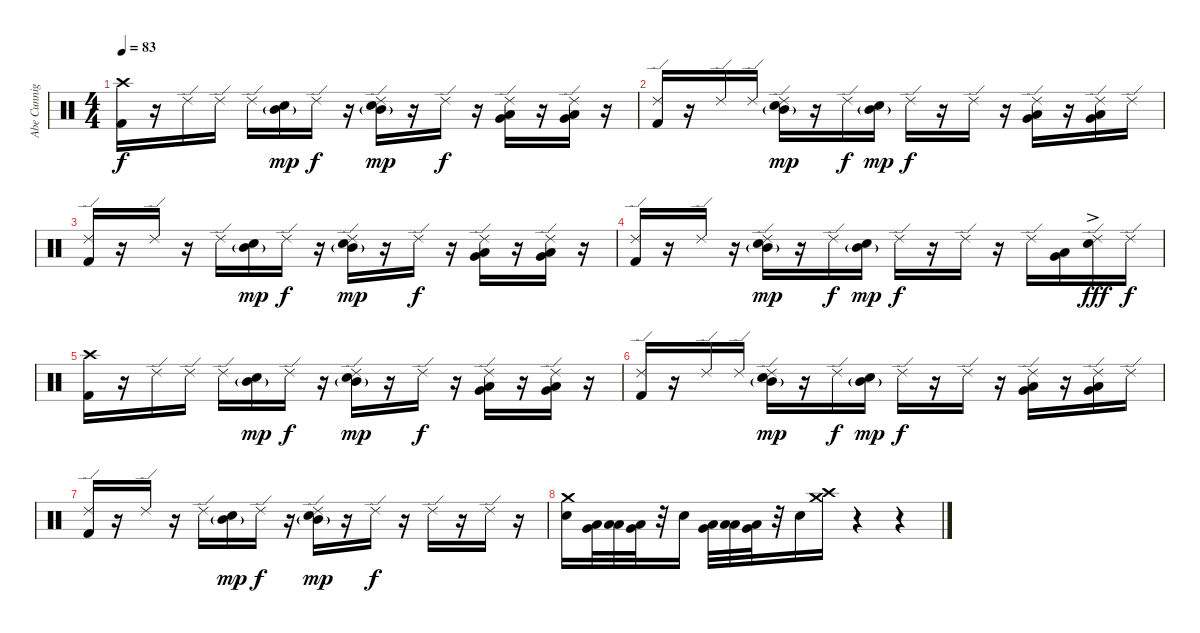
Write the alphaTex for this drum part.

\track ("Abe Cunnigham" "Abe Cunnig") {instrument percussion}
\staff {score}
\articulation defaults
\ts (4 4)
\tempo 83
\clef neutral
\ks c
("Crash high (hit)" "Kick (hit) 2").16{dy f} r.16 "Ride (edge) 2".16 "Ride (edge) 2".16 "Ride (edge) 2".16 ("Mid Tom (hit)"{g} "Electric Snare (hit)").16{dy mp} "Ride (edge) 2".16{dy f} r.16 ("Ride (edge) 2" "Mid Tom (hit)"{g} "Electric Snare (hit)").16{dy mp} r.16 "Ride (edge) 2".16{dy f} r.16 ("Ride (edge) 2" "Very Low Tom (hit)" "Low Tom (hit)").16 r.16 ("Ride (edge) 2" "Very Low Tom (hit)" "Low Tom (hit)").16 r.16 |
("Ride (edge) 2" "Kick (hit) 2").16 r.16 "Ride (edge) 2".16 "Ride (edge) 2".16 ("Ride (edge) 2" "Mid Tom (hit)"{g} "Electric Snare (hit)").16{dy mp} r.16 "Ride (edge) 2".16{dy f} ("Mid Tom (hit)"{g} "Electric Snare (hit)").16{dy mp} "Ride (edge) 2".16{dy f} r.16 "Ride (edge) 2".16 r.16 ("Ride (edge) 2" "Very Low Tom (hit)" "Low Tom (hit)").16 r.16 ("Ride (edge) 2" "Very Low Tom (hit)" "Low Tom (hit)").16 "Ride (edge) 2".16 |
("Ride (edge) 2" "Kick (hit) 2").16 r.16 "Ride (edge) 2".16 r.16 "Ride (edge) 2".16 ("Mid Tom (hit)"{g} "Electric Snare (hit)").16{dy mp} "Ride (edge) 2".16{dy f} r.16 ("Ride (edge) 2" "Mid Tom (hit)"{g} "Electric Snare (hit)").16{dy mp} r.16 "Ride (edge) 2".16{dy f} r.16 ("Ride (edge) 2" "Very Low Tom (hit)" "Low Tom (hit)").16 r.16 ("Ride (edge) 2" "Very Low Tom (hit)" "Low Tom (hit)").16 r.16 |
("Ride (edge) 2" "Kick (hit) 2").16 r.16 "Ride (edge) 2".16 r.16 ("Ride (edge) 2" "Mid Tom (hit)"{g} "Electric Snare (hit)").16{dy mp} r.16 "Ride (edge) 2".16{dy f} ("Mid Tom (hit)"{g} "Electric Snare (hit)").16{dy mp} "Ride (edge) 2".16{dy f} r.16 "Ride (edge) 2".16 r.16 "Ride (edge) 2".16 ("Very Low Tom (hit)" "Low Tom (hit)").16 ("Ride (edge) 2" "Electric Snare (hit)"{ac}).16{dy fff} "Ride (edge) 2".16{dy f} |
("Crash high (hit)" "Kick (hit) 2").16 r.16 "Ride (edge) 2".16 "Ride (edge) 2".16 "Ride (edge) 2".16 ("Mid Tom (hit)"{g} "Electric Snare (hit)").16{dy mp} "Ride (edge) 2".16{dy f} r.16 ("Ride (edge) 2" "Mid Tom (hit)"{g} "Electric Snare (hit)").16{dy mp} r.16 "Ride (edge) 2".16{dy f} r.16 ("Ride (edge) 2" "Very Low Tom (hit)" "Low Tom (hit)").16 r.16 ("Ride (edge) 2" "Very Low Tom (hit)" "Low Tom (hit)").16 r.16 |
("Ride (edge) 2" "Kick (hit) 2").16 r.16 "Ride (edge) 2".16 "Ride (edge) 2".16 ("Ride (edge) 2" "Mid Tom (hit)"{g} "Electric Snare (hit)").16{dy mp} r.16 "Ride (edge) 2".16{dy f} ("Mid Tom (hit)"{g} "Electric Snare (hit)").16{dy mp} "Ride (edge) 2".16{dy f} r.16 "Ride (edge) 2".16 r.16 ("Ride (edge) 2" "Very Low Tom (hit)" "Low Tom (hit)").16 r.16 ("Ride (edge) 2" "Very Low Tom (hit)" "Low Tom (hit)").16 "Ride (edge) 2".16 |
("Ride (edge) 2" "Kick (hit) 2").16 r.16 "Ride (edge) 2".16 r.16 "Ride (edge) 2".16 ("Mid Tom (hit)"{g} "Electric Snare (hit)").16{dy mp} "Ride (edge) 2".16{dy f} r.16 ("Ride (edge) 2" "Mid Tom (hit)"{g} "Electric Snare (hit)").16{dy mp} r.16 "Ride (edge) 2".16{dy f} r.16 "Ride (edge) 2".16 r.16 "Ride (edge) 2".16 r.16 |
("Crash medium (hit)" "Electric Snare (hit)").16 ("Low Tom (hit)" "Very Low Tom (hit)").32 ("Low Tom (hit)" "Low Floor Tom (hit)").32 ("Low Tom (hit)" "Very Low Tom (hit)").32 r.32 "Electric Snare (hit)".16 ("Low Tom (hit)" "Very Low Tom (hit)").32 ("Low Tom (hit)" "Low Floor Tom (hit)").32 ("Low Tom (hit)" "Very Low Tom (hit)").32 r.32 "Electric Snare (hit)".16 ("Crash high (hit)" "Crash medium (hit)").16 r.4 r.4
